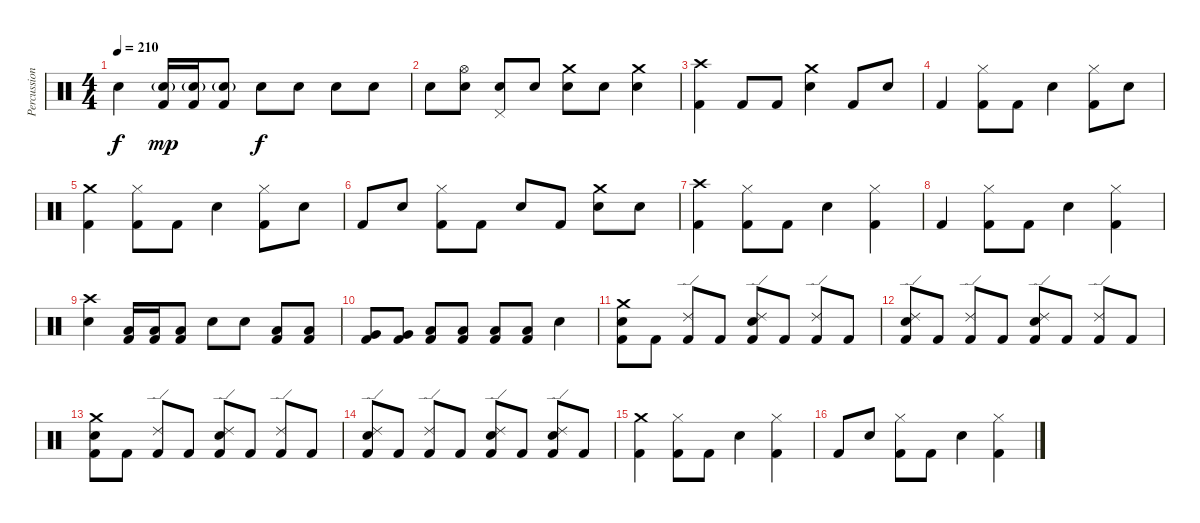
\track ("Percussion" "Percussion") {instrument percussion}
\staff {score}
\articulation defaults
\ts (4 4)
\tempo 210
\clef neutral
\ks c "Electric Snare (hit)".4{dy f}
("Electric Snare (hit)"{g} "Kick (hit) 2").16{dy mp} ("Electric Snare (hit)"{g} "Kick (hit) 2").16 ("Electric Snare (hit)"{g} "Kick (hit) 2").8 "Electric Snare (hit)".8{dy f} "Electric Snare (hit)".8 "Electric Snare (hit)".8 "Electric Snare (hit)".8 |
"Electric Snare (hit)".8 ("Hi-Hat (open)" "Electric Snare (hit)").8 ("Pedal Hi-Hat (hit)" "Electric Snare (hit)").8 "Electric Snare (hit)".8 ("Crash medium (hit)" "Electric Snare (hit)").8 "Electric Snare (hit)".8 ("Crash medium (hit)" "Electric Snare (hit)").4 |
("Crash high (hit)" "Kick (hit) 2").4 "Kick (hit) 2".8 "Kick (hit) 2".8 ("Crash medium (hit)" "Electric Snare (hit)").4 "Kick (hit) 2".8 "Electric Snare (hit)".8 |
"Kick (hit) 2".4 ("Hi-Hat (closed)" "Kick (hit) 2").8 "Kick (hit) 2".8 "Electric Snare (hit)".4 ("Hi-Hat (closed)" "Kick (hit) 2").8 "Electric Snare (hit)".8 |
("Crash medium (hit)" "Kick (hit) 2").4 ("Hi-Hat (closed)" "Kick (hit) 2").8 "Kick (hit) 2".8 "Electric Snare (hit)".4 ("Hi-Hat (closed)" "Kick (hit) 2").8 "Electric Snare (hit)".8 |
"Kick (hit) 2".8 "Electric Snare (hit)".8 ("Hi-Hat (closed)" "Kick (hit) 2").8 "Kick (hit) 2".8 "Electric Snare (hit)".8 "Kick (hit) 2".8 ("Crash medium (hit)" "Electric Snare (hit)").8 "Electric Snare (hit)".8 |
("Crash high (hit)" "Kick (hit) 2").4 ("Hi-Hat (closed)" "Kick (hit) 2").8 "Kick (hit) 2".8 "Electric Snare (hit)".4 ("Hi-Hat (closed)" "Kick (hit) 2").4 |
"Kick (hit) 2".4 ("Hi-Hat (closed)" "Kick (hit) 2").8 "Kick (hit) 2".8 "Electric Snare (hit)".4 ("Hi-Hat (closed)" "Kick (hit) 2").4 |
("Crash high (hit)" "Electric Snare (hit)").4 ("Low Tom (hit)" "Kick (hit) 2").16 ("Low Tom (hit)" "Kick (hit) 2").16 ("Low Tom (hit)" "Kick (hit) 2").8 "Electric Snare (hit)".8 "Electric Snare (hit)".8 ("Low Tom (hit)" "Kick (hit) 2").8 ("Low Tom (hit)" "Kick (hit) 2").8 |
("Very Low Tom (hit)" "Kick (hit) 2").8 ("Very Low Tom (hit)" "Kick (hit) 2").8 ("Low Tom (hit)" "Kick (hit) 2").8 ("Low Tom (hit)" "Kick (hit) 2").8 ("Low Tom (hit)" "Kick (hit) 2").8 ("Low Tom (hit)" "Kick (hit) 2").8 "Electric Snare (hit)".4 |
("Crash medium (hit)" "Electric Snare (hit)" "Kick (hit) 2").8 "Kick (hit) 2".8 ("Ride (edge) 2" "Kick (hit) 2").8 "Kick (hit) 2".8 ("Ride (edge) 2" "Electric Snare (hit)" "Kick (hit) 2").8 "Kick (hit) 2".8 ("Ride (edge) 2" "Kick (hit) 2").8 "Kick (hit) 2".8 |
("Ride (edge) 2" "Electric Snare (hit)" "Kick (hit) 2").8 "Kick (hit) 2".8 ("Ride (edge) 2" "Kick (hit) 2").8 "Kick (hit) 2".8 ("Ride (edge) 2" "Electric Snare (hit)" "Kick (hit) 2").8 "Kick (hit) 2".8 ("Ride (edge) 2" "Kick (hit) 2").8 "Kick (hit) 2".8 |
("Crash medium (hit)" "Electric Snare (hit)" "Kick (hit) 2").8 "Kick (hit) 2".8 ("Ride (edge) 2" "Kick (hit) 2").8 "Kick (hit) 2".8 ("Ride (edge) 2" "Electric Snare (hit)" "Kick (hit) 2").8 "Kick (hit) 2".8 ("Ride (edge) 2" "Kick (hit) 2").8 "Kick (hit) 2".8 |
("Ride (edge) 2" "Electric Snare (hit)" "Kick (hit) 2").8 "Kick (hit) 2".8 ("Ride (edge) 2" "Kick (hit) 2").8 "Kick (hit) 2".8 ("Ride (edge) 2" "Electric Snare (hit)" "Kick (hit) 2").8 "Kick (hit) 2".8 ("Ride (edge) 2" "Electric Snare (hit)" "Kick (hit) 2").8 "Kick (hit) 2".8 |
("Crash medium (hit)" "Kick (hit) 2").4 ("Hi-Hat (closed)" "Kick (hit) 2").8 "Kick (hit) 2".8 "Electric Snare (hit)".4 ("Hi-Hat (closed)" "Kick (hit) 2").4 |
"Kick (hit) 2".8 "Electric Snare (hit)".8 ("Hi-Hat (closed)" "Kick (hit) 2").8 "Kick (hit) 2".8 "Electric Snare (hit)".4 ("Hi-Hat (closed)" "Kick (hit) 2").4
